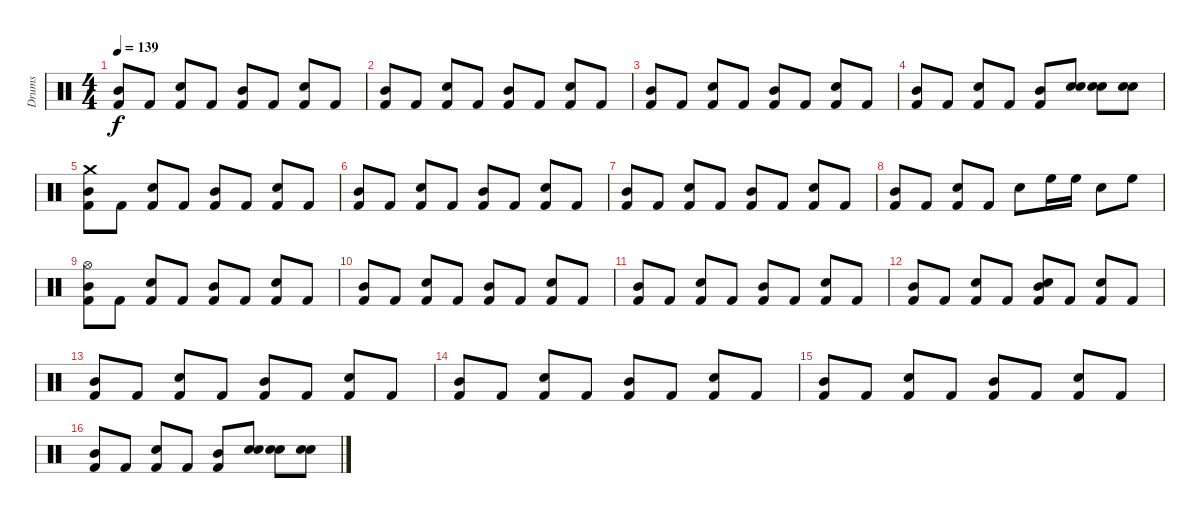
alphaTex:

\track ("Drums" "Drums") {instrument percussion}
\staff {score}
\articulation defaults
\ts (4 4)
\tempo 139
\clef neutral
\ks c
("Kick (hit) 2" "Mid Tom (hit)").8{dy f} "Kick (hit) 2".8 ("Electric Snare (hit)" "Kick (hit) 2").8 "Kick (hit) 2".8 ("Kick (hit) 2" "Mid Tom (hit)").8 "Kick (hit) 2".8 ("Electric Snare (hit)" "Kick (hit) 2").8 "Kick (hit) 2".8 |
("Kick (hit) 2" "Mid Tom (hit)").8 "Kick (hit) 2".8 ("Electric Snare (hit)" "Kick (hit) 2").8 "Kick (hit) 2".8 ("Kick (hit) 2" "Mid Tom (hit)").8 "Kick (hit) 2".8 ("Electric Snare (hit)" "Kick (hit) 2").8 "Kick (hit) 2".8 |
("Kick (hit) 2" "Mid Tom (hit)").8 "Kick (hit) 2".8 ("Electric Snare (hit)" "Kick (hit) 2").8 "Kick (hit) 2".8 ("Kick (hit) 2" "Mid Tom (hit)").8 "Kick (hit) 2".8 ("Electric Snare (hit)" "Kick (hit) 2").8 "Kick (hit) 2".8 |
("Kick (hit) 2" "Mid Tom (hit)").8 "Kick (hit) 2".8 ("Electric Snare (hit)" "Kick (hit) 2").8 "Kick (hit) 2".8 ("Kick (hit) 2" "Mid Tom (hit)").8 ("Electric Snare (hit)" "Electric Snare (hit)").8 ("Electric Snare (hit)" "Electric Snare (hit)").8 ("Electric Snare (hit)" "Electric Snare (hit)").8 |
("Kick (hit) 2" "Mid Tom (hit)" "Crash medium (hit)").8 "Kick (hit) 2".8 ("Electric Snare (hit)" "Kick (hit) 2").8 "Kick (hit) 2".8 ("Kick (hit) 2" "Mid Tom (hit)").8 "Kick (hit) 2".8 ("Electric Snare (hit)" "Kick (hit) 2").8 "Kick (hit) 2".8 |
("Kick (hit) 2" "Mid Tom (hit)").8 "Kick (hit) 2".8 ("Electric Snare (hit)" "Kick (hit) 2").8 "Kick (hit) 2".8 ("Kick (hit) 2" "Mid Tom (hit)").8 "Kick (hit) 2".8 ("Electric Snare (hit)" "Kick (hit) 2").8 "Kick (hit) 2".8 |
("Kick (hit) 2" "Mid Tom (hit)").8 "Kick (hit) 2".8 ("Electric Snare (hit)" "Kick (hit) 2").8 "Kick (hit) 2".8 ("Kick (hit) 2" "Mid Tom (hit)").8 "Kick (hit) 2".8 ("Electric Snare (hit)" "Kick (hit) 2").8 "Kick (hit) 2".8 |
("Kick (hit) 2" "Mid Tom (hit)").8 "Kick (hit) 2".8 ("Electric Snare (hit)" "Kick (hit) 2").8 "Kick (hit) 2".8 "Electric Snare (hit)".8 "High Floor Tom (hit)".16 "High Floor Tom (hit)".16 "Electric Snare (hit)".8 "High Floor Tom (hit)".8 |
("Kick (hit) 2" "Mid Tom (hit)" "Hi-Hat (open)").8 "Kick (hit) 2".8 ("Electric Snare (hit)" "Kick (hit) 2").8 "Kick (hit) 2".8 ("Kick (hit) 2" "Mid Tom (hit)").8 "Kick (hit) 2".8 ("Electric Snare (hit)" "Kick (hit) 2").8 "Kick (hit) 2".8 |
("Kick (hit) 2" "Mid Tom (hit)").8 "Kick (hit) 2".8 ("Electric Snare (hit)" "Kick (hit) 2").8 "Kick (hit) 2".8 ("Kick (hit) 2" "Mid Tom (hit)").8 "Kick (hit) 2".8 ("Electric Snare (hit)" "Kick (hit) 2").8 "Kick (hit) 2".8 |
("Kick (hit) 2" "Mid Tom (hit)").8 "Kick (hit) 2".8 ("Electric Snare (hit)" "Kick (hit) 2").8 "Kick (hit) 2".8 ("Kick (hit) 2" "Mid Tom (hit)").8 "Kick (hit) 2".8 ("Electric Snare (hit)" "Kick (hit) 2").8 "Kick (hit) 2".8 |
("Kick (hit) 2" "Mid Tom (hit)").8 "Kick (hit) 2".8 ("Electric Snare (hit)" "Kick (hit) 2").8 "Kick (hit) 2".8 ("Electric Snare (hit)" "Kick (hit) 2" "Mid Tom (hit)").8 "Kick (hit) 2".8 ("Electric Snare (hit)" "Kick (hit) 2").8 "Kick (hit) 2".8 |
("Kick (hit) 2" "Mid Tom (hit)").8 "Kick (hit) 2".8 ("Electric Snare (hit)" "Kick (hit) 2").8 "Kick (hit) 2".8 ("Kick (hit) 2" "Mid Tom (hit)").8 "Kick (hit) 2".8 ("Electric Snare (hit)" "Kick (hit) 2").8 "Kick (hit) 2".8 |
("Kick (hit) 2" "Mid Tom (hit)").8 "Kick (hit) 2".8 ("Electric Snare (hit)" "Kick (hit) 2").8 "Kick (hit) 2".8 ("Kick (hit) 2" "Mid Tom (hit)").8 "Kick (hit) 2".8 ("Electric Snare (hit)" "Kick (hit) 2").8 "Kick (hit) 2".8 |
("Kick (hit) 2" "Mid Tom (hit)").8 "Kick (hit) 2".8 ("Electric Snare (hit)" "Kick (hit) 2").8 "Kick (hit) 2".8 ("Kick (hit) 2" "Mid Tom (hit)").8 "Kick (hit) 2".8 ("Electric Snare (hit)" "Kick (hit) 2").8 "Kick (hit) 2".8 |
("Kick (hit) 2" "Mid Tom (hit)").8 "Kick (hit) 2".8 ("Electric Snare (hit)" "Kick (hit) 2").8 "Kick (hit) 2".8 ("Kick (hit) 2" "Mid Tom (hit)").8 ("Electric Snare (hit)" "Electric Snare (hit)").8 ("Electric Snare (hit)" "Electric Snare (hit)").8 ("Electric Snare (hit)" "Electric Snare (hit)").8
